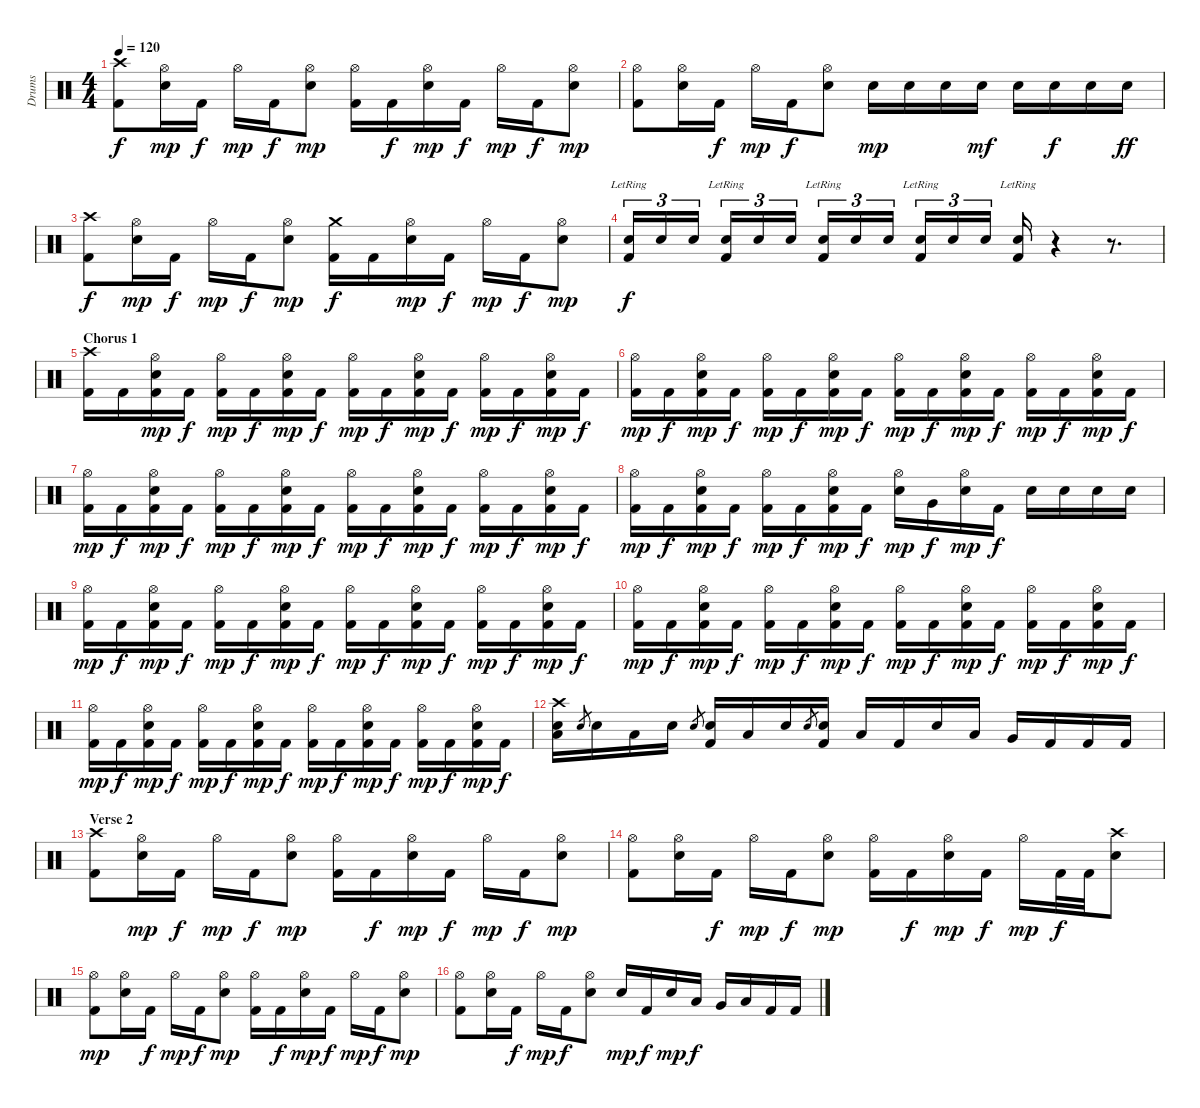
\track ("Drums" "Drums") {instrument percussion}
\staff {score}
\articulation defaults
\ts (4 4)
\tempo 120
\clef neutral
\ks c
("Crash high (hit)" "Kick (hit) 2").8{dy f} ("Hi-Hat (open)" "Snare (hit) 2").16{dy mp} "Kick (hit) 2".16{dy f} "Hi-Hat (open)".16{dy mp} "Kick (hit) 2".16{dy f} ("Hi-Hat (open)" "Snare (hit) 2").8{dy mp} ("Hi-Hat (open)" "Kick (hit) 2").16 "Kick (hit) 2".16{dy f} ("Hi-Hat (open)" "Snare (hit) 2").16{dy mp} "Kick (hit) 2".16{dy f} "Hi-Hat (open)".16{dy mp} "Kick (hit) 2".16{dy f} ("Hi-Hat (open)" "Snare (hit) 2").8{dy mp} |
("Hi-Hat (open)" "Kick (hit) 2").8 ("Hi-Hat (open)" "Snare (hit) 2").16 "Kick (hit) 2".16{dy f} "Hi-Hat (open)".16{dy mp} "Kick (hit) 2".16{dy f} ("Hi-Hat (open)" "Snare (hit) 2").8 "Snare (hit) 2".16{dy mp} "Snare (hit) 2".16 "Snare (hit) 2".16 "Snare (hit) 2".16{dy mf} "Snare (hit) 2".16 "Snare (hit) 2".16{dy f} "Snare (hit) 2".16 "Snare (hit) 2".16{dy ff} |
("Crash high (hit)" "Kick (hit) 2").8{dy f} ("Hi-Hat (open)" "Snare (hit) 2").16{dy mp} "Kick (hit) 2".16{dy f} "Hi-Hat (open)".16{dy mp} "Kick (hit) 2".16{dy f} ("Hi-Hat (open)" "Snare (hit) 2").8{dy mp} ("Crash medium (hit)" "Kick (hit) 2").16{dy f} "Kick (hit) 2".16 ("Hi-Hat (open)" "Snare (hit) 2").16{dy mp} "Kick (hit) 2".16{dy f} "Hi-Hat (open)".16{dy mp} "Kick (hit) 2".16{dy f} ("Hi-Hat (open)" "Snare (hit) 2").8{dy mp} |
("Snare (hit) 2"{lr} "Kick (hit) 2").16{tu (3 2) dy f} "Snare (hit) 2".16{tu (3 2)} "Snare (hit) 2".16{tu (3 2)} ("Snare (hit) 2"{lr} "Kick (hit) 2").16{tu (3 2)} "Snare (hit) 2".16{tu (3 2)} "Snare (hit) 2".16{tu (3 2)} ("Snare (hit) 2"{lr} "Kick (hit) 2").16{tu (3 2)} "Snare (hit) 2".16{tu (3 2)} "Snare (hit) 2".16{tu (3 2)} ("Snare (hit) 2"{lr} "Kick (hit) 2").16{tu (3 2)} "Snare (hit) 2".16{tu (3 2)} "Snare (hit) 2".16{tu (3 2)} ("Snare (hit) 2"{lr} "Kick (hit) 2").16 r.4 r.8{d} |
\section ("" "Chorus 1")
("Crash high (hit)" "Kick (hit) 2").16 "Kick (hit) 2".16 ("Hi-Hat (open)" "Snare (hit) 2" "Kick (hit) 2").16{dy mp} "Kick (hit) 2".16{dy f} ("Hi-Hat (open)" "Kick (hit) 2").16{dy mp} "Kick (hit) 2".16{dy f} ("Hi-Hat (open)" "Snare (hit) 2" "Kick (hit) 2").16{dy mp} "Kick (hit) 2".16{dy f} ("Hi-Hat (open)" "Kick (hit) 2").16{dy mp} "Kick (hit) 2".16{dy f} ("Hi-Hat (open)" "Snare (hit) 2" "Kick (hit) 2").16{dy mp} "Kick (hit) 2".16{dy f} ("Hi-Hat (open)" "Kick (hit) 2").16{dy mp} "Kick (hit) 2".16{dy f} ("Hi-Hat (open)" "Snare (hit) 2" "Kick (hit) 2").16{dy mp} "Kick (hit) 2".16{dy f} |
("Hi-Hat (open)" "Kick (hit) 2").16{dy mp} "Kick (hit) 2".16{dy f} ("Hi-Hat (open)" "Snare (hit) 2" "Kick (hit) 2").16{dy mp} "Kick (hit) 2".16{dy f} ("Hi-Hat (open)" "Kick (hit) 2").16{dy mp} "Kick (hit) 2".16{dy f} ("Hi-Hat (open)" "Snare (hit) 2" "Kick (hit) 2").16{dy mp} "Kick (hit) 2".16{dy f} ("Hi-Hat (open)" "Kick (hit) 2").16{dy mp} "Kick (hit) 2".16{dy f} ("Hi-Hat (open)" "Snare (hit) 2" "Kick (hit) 2").16{dy mp} "Kick (hit) 2".16{dy f} ("Hi-Hat (open)" "Kick (hit) 2").16{dy mp} "Kick (hit) 2".16{dy f} ("Hi-Hat (open)" "Snare (hit) 2" "Kick (hit) 2").16{dy mp} "Kick (hit) 2".16{dy f} |
("Hi-Hat (open)" "Kick (hit) 2").16{dy mp} "Kick (hit) 2".16{dy f} ("Hi-Hat (open)" "Snare (hit) 2" "Kick (hit) 2").16{dy mp} "Kick (hit) 2".16{dy f} ("Hi-Hat (open)" "Kick (hit) 2").16{dy mp} "Kick (hit) 2".16{dy f} ("Hi-Hat (open)" "Snare (hit) 2" "Kick (hit) 2").16{dy mp} "Kick (hit) 2".16{dy f} ("Hi-Hat (open)" "Kick (hit) 2").16{dy mp} "Kick (hit) 2".16{dy f} ("Hi-Hat (open)" "Snare (hit) 2" "Kick (hit) 2").16{dy mp} "Kick (hit) 2".16{dy f} ("Hi-Hat (open)" "Kick (hit) 2").16{dy mp} "Kick (hit) 2".16{dy f} ("Hi-Hat (open)" "Snare (hit) 2" "Kick (hit) 2").16{dy mp} "Kick (hit) 2".16{dy f} |
("Hi-Hat (open)" "Kick (hit) 2").16{dy mp} "Kick (hit) 2".16{dy f} ("Hi-Hat (open)" "Snare (hit) 2" "Kick (hit) 2").16{dy mp} "Kick (hit) 2".16{dy f} ("Hi-Hat (open)" "Kick (hit) 2").16{dy mp} "Kick (hit) 2".16{dy f} ("Hi-Hat (open)" "Snare (hit) 2" "Kick (hit) 2").16{dy mp} "Kick (hit) 2".16{dy f} ("Hi-Hat (open)" "Snare (hit) 2").16{dy mp} "Very Low Tom (hit)".16{dy f} ("Hi-Hat (open)" "Snare (hit) 2").16{dy mp} "Kick (hit) 2".16{dy f} "Snare (hit) 2".16 "Snare (hit) 2".16 "Snare (hit) 2".16 "Snare (hit) 2".16 |
("Hi-Hat (open)" "Kick (hit) 2").16{dy mp} "Kick (hit) 2".16{dy f} ("Hi-Hat (open)" "Snare (hit) 2" "Kick (hit) 2").16{dy mp} "Kick (hit) 2".16{dy f} ("Hi-Hat (open)" "Kick (hit) 2").16{dy mp} "Kick (hit) 2".16{dy f} ("Hi-Hat (open)" "Snare (hit) 2" "Kick (hit) 2").16{dy mp} "Kick (hit) 2".16{dy f} ("Hi-Hat (open)" "Kick (hit) 2").16{dy mp} "Kick (hit) 2".16{dy f} ("Hi-Hat (open)" "Snare (hit) 2" "Kick (hit) 2").16{dy mp} "Kick (hit) 2".16{dy f} ("Hi-Hat (open)" "Kick (hit) 2").16{dy mp} "Kick (hit) 2".16{dy f} ("Hi-Hat (open)" "Snare (hit) 2" "Kick (hit) 2").16{dy mp} "Kick (hit) 2".16{dy f} |
("Hi-Hat (open)" "Kick (hit) 2").16{dy mp} "Kick (hit) 2".16{dy f} ("Hi-Hat (open)" "Snare (hit) 2" "Kick (hit) 2").16{dy mp} "Kick (hit) 2".16{dy f} ("Hi-Hat (open)" "Kick (hit) 2").16{dy mp} "Kick (hit) 2".16{dy f} ("Hi-Hat (open)" "Snare (hit) 2" "Kick (hit) 2").16{dy mp} "Kick (hit) 2".16{dy f} ("Hi-Hat (open)" "Kick (hit) 2").16{dy mp} "Kick (hit) 2".16{dy f} ("Hi-Hat (open)" "Snare (hit) 2" "Kick (hit) 2").16{dy mp} "Kick (hit) 2".16{dy f} ("Hi-Hat (open)" "Kick (hit) 2").16{dy mp} "Kick (hit) 2".16{dy f} ("Hi-Hat (open)" "Snare (hit) 2" "Kick (hit) 2").16{dy mp} "Kick (hit) 2".16{dy f} |
("Hi-Hat (open)" "Kick (hit) 2").16{dy mp} "Kick (hit) 2".16{dy f} ("Hi-Hat (open)" "Snare (hit) 2" "Kick (hit) 2").16{dy mp} "Kick (hit) 2".16{dy f} ("Hi-Hat (open)" "Kick (hit) 2").16{dy mp} "Kick (hit) 2".16{dy f} ("Hi-Hat (open)" "Snare (hit) 2" "Kick (hit) 2").16{dy mp} "Kick (hit) 2".16{dy f} ("Hi-Hat (open)" "Kick (hit) 2").16{dy mp} "Kick (hit) 2".16{dy f} ("Hi-Hat (open)" "Snare (hit) 2" "Kick (hit) 2").16{dy mp} "Kick (hit) 2".16{dy f} ("Hi-Hat (open)" "Kick (hit) 2").16{dy mp} "Kick (hit) 2".16{dy f} ("Hi-Hat (open)" "Snare (hit) 2" "Kick (hit) 2").16{dy mp} "Kick (hit) 2".16{dy f} |
("Crash high (hit)" "Low Tom (hit)" "Snare (hit) 2").16 "Snare (hit) 2".8{gr} "Snare (hit) 2".16 "Low Tom (hit)".16 "Snare (hit) 2".16 "Snare (hit) 2".8{gr} ("Snare (hit) 2" "Kick (hit) 2").16 "Low Tom (hit)".16 "Snare (hit) 2".16 "Snare (hit) 2".8{gr} ("Snare (hit) 2" "Kick (hit) 2").16 "Low Tom (hit)".16 "Kick (hit) 2".16 "Snare (hit) 2".16 "Low Tom (hit)".16 "Very Low Tom (hit)".16 "Kick (hit) 2".16 "Kick (hit) 2".16 "Kick (hit) 2".16 |
\section ("" "Verse 2")
("Crash high (hit)" "Kick (hit) 2").8 ("Hi-Hat (open)" "Snare (hit) 2").16{dy mp} "Kick (hit) 2".16{dy f} "Hi-Hat (open)".16{dy mp} "Kick (hit) 2".16{dy f} ("Hi-Hat (open)" "Snare (hit) 2").8{dy mp} ("Hi-Hat (open)" "Kick (hit) 2").16 "Kick (hit) 2".16{dy f} ("Hi-Hat (open)" "Snare (hit) 2").16{dy mp} "Kick (hit) 2".16{dy f} "Hi-Hat (open)".16{dy mp} "Kick (hit) 2".16{dy f} ("Hi-Hat (open)" "Snare (hit) 2").8{dy mp} |
("Hi-Hat (open)" "Kick (hit) 2").8 ("Hi-Hat (open)" "Snare (hit) 2").16 "Kick (hit) 2".16{dy f} "Hi-Hat (open)".16{dy mp} "Kick (hit) 2".16{dy f} ("Hi-Hat (open)" "Snare (hit) 2").8{dy mp} ("Hi-Hat (open)" "Kick (hit) 2").16 "Kick (hit) 2".16{dy f} ("Hi-Hat (open)" "Snare (hit) 2").16{dy mp} "Kick (hit) 2".16{dy f} "Hi-Hat (open)".16{dy mp} "Kick (hit) 2".32{dy f} "Kick (hit) 2".32 ("Crash high (hit)" "Snare (hit) 2").8 |
("Hi-Hat (open)" "Kick (hit) 2").8{dy mp} ("Hi-Hat (open)" "Snare (hit) 2").16 "Kick (hit) 2".16{dy f} "Hi-Hat (open)".16{dy mp} "Kick (hit) 2".16{dy f} ("Hi-Hat (open)" "Snare (hit) 2").8{dy mp} ("Hi-Hat (open)" "Kick (hit) 2").16 "Kick (hit) 2".16{dy f} ("Hi-Hat (open)" "Snare (hit) 2").16{dy mp} "Kick (hit) 2".16{dy f} "Hi-Hat (open)".16{dy mp} "Kick (hit) 2".16{dy f} ("Hi-Hat (open)" "Snare (hit) 2").8{dy mp} |
("Hi-Hat (open)" "Kick (hit) 2").8 ("Hi-Hat (open)" "Snare (hit) 2").16 "Kick (hit) 2".16{dy f} "Hi-Hat (open)".16{dy mp} "Kick (hit) 2".16{dy f} ("Hi-Hat (open)" "Snare (hit) 2").8 "Snare (hit) 2".16{dy mp} "Kick (hit) 2".16{dy f} "Snare (hit) 2".16{dy mp} "Low Tom (hit)".16{dy f} "Very Low Tom (hit)".16 "Low Floor Tom (hit)".16 "Kick (hit) 2".16 "Kick (hit) 2".16
